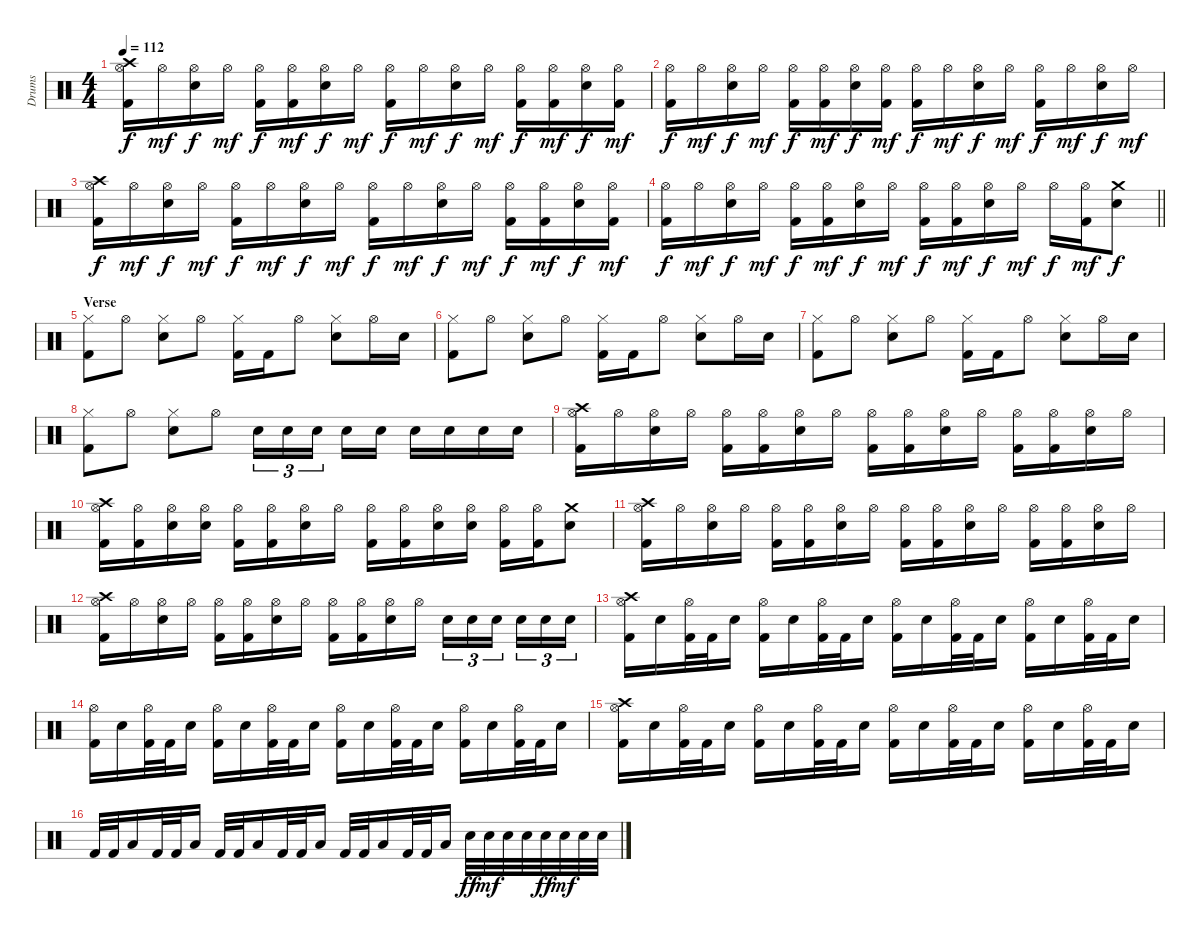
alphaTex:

\track ("Drums" "Drums") {instrument percussion}
\staff {score}
\articulation defaults
\ts (4 4)
\tempo 112
\clef neutral
\ks c
("Crash high (hit)" "Hi-Hat (open)" "Kick (hit) 2").16{dy f} "Hi-Hat (open)".16{dy mf} ("Hi-Hat (open)" "Electric Snare (hit)").16{dy f} "Hi-Hat (open)".16{dy mf} ("Hi-Hat (open)" "Kick (hit) 2").16{dy f} ("Hi-Hat (open)" "Kick (hit) 2").16{dy mf} ("Hi-Hat (open)" "Electric Snare (hit)").16{dy f} "Hi-Hat (open)".16{dy mf} ("Hi-Hat (open)" "Kick (hit) 2").16{dy f} "Hi-Hat (open)".16{dy mf} ("Hi-Hat (open)" "Electric Snare (hit)").16{dy f} "Hi-Hat (open)".16{dy mf} ("Hi-Hat (open)" "Kick (hit) 2").16{dy f} ("Hi-Hat (open)" "Kick (hit) 2").16{dy mf} ("Hi-Hat (open)" "Electric Snare (hit)").16{dy f} ("Hi-Hat (open)" "Kick (hit) 2").16{dy mf} |
("Hi-Hat (open)" "Kick (hit) 2").16{dy f} "Hi-Hat (open)".16{dy mf} ("Hi-Hat (open)" "Electric Snare (hit)").16{dy f} "Hi-Hat (open)".16{dy mf} ("Hi-Hat (open)" "Kick (hit) 2").16{dy f} ("Hi-Hat (open)" "Kick (hit) 2").16{dy mf} ("Hi-Hat (open)" "Electric Snare (hit)").16{dy f} ("Hi-Hat (open)" "Kick (hit) 2").16{dy mf} ("Hi-Hat (open)" "Kick (hit) 2").16{dy f} "Hi-Hat (open)".16{dy mf} ("Hi-Hat (open)" "Electric Snare (hit)").16{dy f} "Hi-Hat (open)".16{dy mf} ("Hi-Hat (open)" "Kick (hit) 2").16{dy f} "Hi-Hat (open)".16{dy mf} ("Hi-Hat (open)" "Electric Snare (hit)").16{dy f} "Hi-Hat (open)".16{dy mf} |
("Crash high (hit)" "Hi-Hat (open)" "Kick (hit) 2").16{dy f} "Hi-Hat (open)".16{dy mf} ("Hi-Hat (open)" "Electric Snare (hit)").16{dy f} "Hi-Hat (open)".16{dy mf} ("Hi-Hat (open)" "Kick (hit) 2").16{dy f} "Hi-Hat (open)".16{dy mf} ("Hi-Hat (open)" "Electric Snare (hit)").16{dy f} "Hi-Hat (open)".16{dy mf} ("Hi-Hat (open)" "Kick (hit) 2").16{dy f} "Hi-Hat (open)".16{dy mf} ("Hi-Hat (open)" "Electric Snare (hit)").16{dy f} "Hi-Hat (open)".16{dy mf} ("Hi-Hat (open)" "Kick (hit) 2").16{dy f} ("Hi-Hat (open)" "Kick (hit) 2").16{dy mf} ("Hi-Hat (open)" "Electric Snare (hit)").16{dy f} ("Hi-Hat (open)" "Kick (hit) 2").16{dy mf} |
\barLineRight lightlight
("Hi-Hat (open)" "Kick (hit) 2").16{dy f} "Hi-Hat (open)".16{dy mf} ("Hi-Hat (open)" "Electric Snare (hit)").16{dy f} "Hi-Hat (open)".16{dy mf} ("Hi-Hat (open)" "Kick (hit) 2").16{dy f} ("Hi-Hat (open)" "Kick (hit) 2").16{dy mf} ("Hi-Hat (open)" "Electric Snare (hit)").16{dy f} "Hi-Hat (open)".16{dy mf} ("Hi-Hat (open)" "Kick (hit) 2").16{dy f} ("Hi-Hat (open)" "Kick (hit) 2").16{dy mf} ("Hi-Hat (open)" "Electric Snare (hit)").16{dy f} "Hi-Hat (open)".16{dy mf} "Hi-Hat (open)".16{dy f} ("Hi-Hat (open)" "Kick (hit) 2").16{dy mf} ("Crash medium (hit)" "Electric Snare (hit)").8{dy f} |
\section ("" "Verse")
("Hi-Hat (closed)" "Kick (hit) 2").8 "Hi-Hat (open)".8 ("Hi-Hat (closed)" "Electric Snare (hit)").8 "Hi-Hat (open)".8 ("Hi-Hat (closed)" "Kick (hit) 2").16 "Kick (hit) 2".16 "Hi-Hat (open)".8 ("Hi-Hat (closed)" "Electric Snare (hit)").8 "Hi-Hat (open)".16 "Electric Snare (hit)".16 |
("Hi-Hat (closed)" "Kick (hit) 2").8 "Hi-Hat (open)".8 ("Hi-Hat (closed)" "Electric Snare (hit)").8 "Hi-Hat (open)".8 ("Hi-Hat (closed)" "Kick (hit) 2").16 "Kick (hit) 2".16 "Hi-Hat (open)".8 ("Hi-Hat (closed)" "Electric Snare (hit)").8 "Hi-Hat (open)".16 "Electric Snare (hit)".16 |
("Hi-Hat (closed)" "Kick (hit) 2").8 "Hi-Hat (open)".8 ("Hi-Hat (closed)" "Electric Snare (hit)").8 "Hi-Hat (open)".8 ("Hi-Hat (closed)" "Kick (hit) 2").16 "Kick (hit) 2".16 "Hi-Hat (open)".8 ("Hi-Hat (closed)" "Electric Snare (hit)").8 "Hi-Hat (open)".16 "Electric Snare (hit)".16 |
("Hi-Hat (closed)" "Kick (hit) 2").8 "Hi-Hat (open)".8 ("Hi-Hat (closed)" "Electric Snare (hit)").8 "Hi-Hat (open)".8 "Electric Snare (hit)".16{tu (3 2)} "Electric Snare (hit)".16{tu (3 2)} "Electric Snare (hit)".16{tu (3 2) beam splitsecondary} "Electric Snare (hit)".16 "Electric Snare (hit)".16 "Electric Snare (hit)".16 "Electric Snare (hit)".16 "Electric Snare (hit)".16 "Electric Snare (hit)".16 |
("Crash high (hit)" "Hi-Hat (open)" "Kick (hit) 2").16 "Hi-Hat (open)".16 ("Hi-Hat (open)" "Electric Snare (hit)").16 "Hi-Hat (open)".16 ("Hi-Hat (open)" "Kick (hit) 2").16 ("Hi-Hat (open)" "Kick (hit) 2").16 ("Hi-Hat (open)" "Electric Snare (hit)").16 "Hi-Hat (open)".16 ("Hi-Hat (open)" "Kick (hit) 2").16 ("Hi-Hat (open)" "Kick (hit) 2").16 ("Hi-Hat (open)" "Electric Snare (hit)").16 "Hi-Hat (open)".16 ("Hi-Hat (open)" "Kick (hit) 2").16 ("Hi-Hat (open)" "Kick (hit) 2").16 ("Hi-Hat (open)" "Electric Snare (hit)").16 "Hi-Hat (open)".16 |
("Crash high (hit)" "Hi-Hat (open)" "Kick (hit) 2").16 ("Hi-Hat (open)" "Kick (hit) 2").16 ("Hi-Hat (open)" "Electric Snare (hit)").16 ("Hi-Hat (open)" "Electric Snare (hit)").16 ("Hi-Hat (open)" "Kick (hit) 2").16 ("Hi-Hat (open)" "Kick (hit) 2").16 ("Hi-Hat (open)" "Electric Snare (hit)").16 "Hi-Hat (open)".16 ("Hi-Hat (open)" "Kick (hit) 2").16 ("Hi-Hat (open)" "Kick (hit) 2").16 ("Hi-Hat (open)" "Electric Snare (hit)").16 ("Hi-Hat (open)" "Electric Snare (hit)").16 ("Hi-Hat (open)" "Kick (hit) 2").16 ("Hi-Hat (open)" "Kick (hit) 2").16 ("Crash medium (hit)" "Electric Snare (hit)").8 |
("Crash high (hit)" "Hi-Hat (open)" "Kick (hit) 2").16 "Hi-Hat (open)".16 ("Hi-Hat (open)" "Electric Snare (hit)").16 "Hi-Hat (open)".16 ("Hi-Hat (open)" "Kick (hit) 2").16 ("Hi-Hat (open)" "Kick (hit) 2").16 ("Hi-Hat (open)" "Electric Snare (hit)").16 "Hi-Hat (open)".16 ("Hi-Hat (open)" "Kick (hit) 2").16 ("Hi-Hat (open)" "Kick (hit) 2").16 ("Hi-Hat (open)" "Electric Snare (hit)").16 "Hi-Hat (open)".16 ("Hi-Hat (open)" "Kick (hit) 2").16 ("Hi-Hat (open)" "Kick (hit) 2").16 ("Hi-Hat (open)" "Electric Snare (hit)").16 "Hi-Hat (open)".16 |
("Crash high (hit)" "Hi-Hat (open)" "Kick (hit) 2").16 "Hi-Hat (open)".16 ("Hi-Hat (open)" "Electric Snare (hit)").16 "Hi-Hat (open)".16 ("Hi-Hat (open)" "Kick (hit) 2").16 ("Hi-Hat (open)" "Kick (hit) 2").16 ("Hi-Hat (open)" "Electric Snare (hit)").16 "Hi-Hat (open)".16 ("Hi-Hat (open)" "Kick (hit) 2").16 ("Hi-Hat (open)" "Kick (hit) 2").16 ("Hi-Hat (open)" "Electric Snare (hit)").16 "Hi-Hat (open)".16 "Electric Snare (hit)".16{tu (3 2)} "Electric Snare (hit)".16{tu (3 2)} "Electric Snare (hit)".16{tu (3 2) beam splitsecondary} "Electric Snare (hit)".16{tu (3 2)} "Electric Snare (hit)".16{tu (3 2)} "Electric Snare (hit)".16{tu (3 2)} |
("Crash high (hit)" "Hi-Hat (open)" "Kick (hit) 2").16 "Electric Snare (hit)".16 ("Hi-Hat (open)" "Kick (hit) 2").32 "Kick (hit) 2".32 "Electric Snare (hit)".16 ("Hi-Hat (open)" "Kick (hit) 2").16 "Electric Snare (hit)".16 ("Hi-Hat (open)" "Kick (hit) 2").32 "Kick (hit) 2".32 "Electric Snare (hit)".16 ("Hi-Hat (open)" "Kick (hit) 2").16 "Electric Snare (hit)".16 ("Hi-Hat (open)" "Kick (hit) 2").32 "Kick (hit) 2".32 "Electric Snare (hit)".16 ("Hi-Hat (open)" "Kick (hit) 2").16 "Electric Snare (hit)".16 ("Hi-Hat (open)" "Kick (hit) 2").32 "Kick (hit) 2".32 "Electric Snare (hit)".16 |
("Hi-Hat (open)" "Kick (hit) 2").16 "Electric Snare (hit)".16 ("Hi-Hat (open)" "Kick (hit) 2").32 "Kick (hit) 2".32 "Electric Snare (hit)".16 ("Hi-Hat (open)" "Kick (hit) 2").16 "Electric Snare (hit)".16 ("Hi-Hat (open)" "Kick (hit) 2").32 "Kick (hit) 2".32 "Electric Snare (hit)".16 ("Hi-Hat (open)" "Kick (hit) 2").16 "Electric Snare (hit)".16 ("Hi-Hat (open)" "Kick (hit) 2").32 "Kick (hit) 2".32 "Electric Snare (hit)".16 ("Hi-Hat (open)" "Kick (hit) 2").16 "Electric Snare (hit)".16 ("Hi-Hat (open)" "Kick (hit) 2").32 "Kick (hit) 2".32 "Electric Snare (hit)".16 |
("Crash high (hit)" "Hi-Hat (open)" "Kick (hit) 2").16 "Electric Snare (hit)".16 ("Hi-Hat (open)" "Kick (hit) 2").32 "Kick (hit) 2".32 "Electric Snare (hit)".16 ("Hi-Hat (open)" "Kick (hit) 2").16 "Electric Snare (hit)".16 ("Hi-Hat (open)" "Kick (hit) 2").32 "Kick (hit) 2".32 "Electric Snare (hit)".16 ("Hi-Hat (open)" "Kick (hit) 2").16 "Electric Snare (hit)".16 ("Hi-Hat (open)" "Kick (hit) 2").32 "Kick (hit) 2".32 "Electric Snare (hit)".16 ("Hi-Hat (open)" "Kick (hit) 2").16 "Electric Snare (hit)".16 ("Hi-Hat (open)" "Kick (hit) 2").32 "Kick (hit) 2".32 "Electric Snare (hit)".16 |
"Kick (hit) 2".32 "Kick (hit) 2".32 "Low Tom (hit)".16 "Kick (hit) 2".32 "Kick (hit) 2".32 "Low Tom (hit)".16 "Kick (hit) 2".32 "Kick (hit) 2".32 "Low Tom (hit)".16 "Kick (hit) 2".32 "Kick (hit) 2".32 "Low Tom (hit)".16 "Kick (hit) 2".32 "Kick (hit) 2".32 "Low Tom (hit)".16 "Kick (hit) 2".32 "Kick (hit) 2".32 "Low Tom (hit)".16 "Electric Snare (hit)".32{dy ff} "Electric Snare (hit)".32{dy mf} "Electric Snare (hit)".32 "Electric Snare (hit)".32 "Electric Snare (hit)".32{dy ff} "Electric Snare (hit)".32{dy mf} "Electric Snare (hit)".32 "Electric Snare (hit)".32
